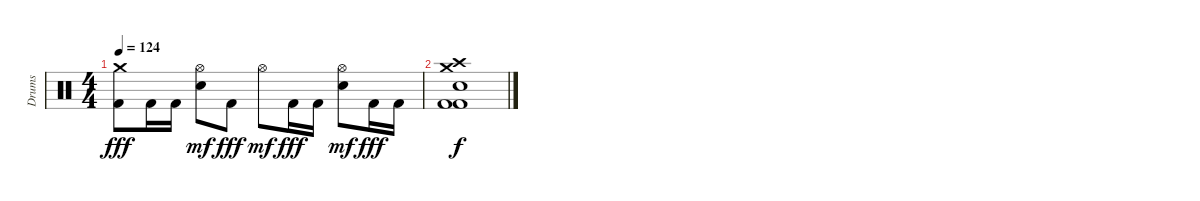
\track ("Drums" "Drums") {instrument percussion}
\staff {score}
\articulation defaults
\ts (4 4)
\tempo 124
\clef neutral
\ks c
("Crash medium (hit)" "Kick (hit) 2").8{dy fff} "Kick (hit) 2".16 "Kick (hit) 2".16 ("Electric Snare (hit)" "Hi-Hat (open)").8{dy mf} "Kick (hit) 2".8{dy fff} "Hi-Hat (open)".8{dy mf} "Kick (hit) 2".16{dy fff} "Kick (hit) 2".16 ("Electric Snare (hit)" "Hi-Hat (open)").8{dy mf} "Kick (hit) 2".16{dy fff} "Kick (hit) 2".16 |
("Crash high (hit)" "Crash medium (hit)" "Electric Snare (hit)" "Kick (hit) 2" "Kick (hit) 2").1{dy f}
